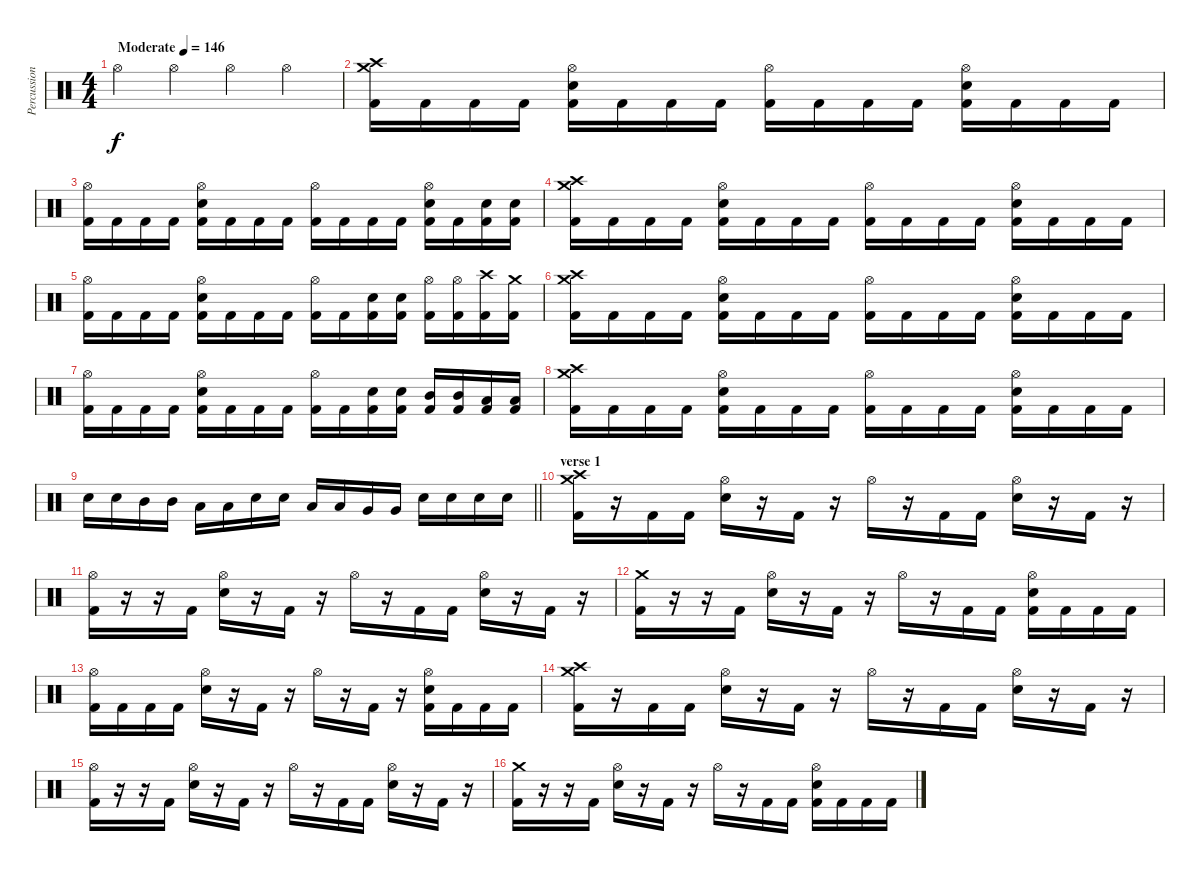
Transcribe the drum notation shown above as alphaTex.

\track ("Percussion" "Percussion") {instrument percussion}
\staff {score}
\articulation defaults
\ts (4 4)
\tempo (146 "Moderate")
\clef neutral
\ks c "Hi-Hat (open)".4{dy f} "Hi-Hat (open)".4 "Hi-Hat (open)".4 "Hi-Hat (open)".4
|
("Crash high (hit)" "Crash medium (hit)" "Kick (hit) 2").16 "Kick (hit) 2".16 "Kick (hit) 2".16 "Kick (hit) 2".16 ("Hi-Hat (open)" "Snare (hit) 2" "Kick (hit) 2").16 "Kick (hit) 2".16 "Kick (hit) 2".16 "Kick (hit) 2".16 ("Hi-Hat (open)" "Kick (hit) 2").16 "Kick (hit) 2".16 "Kick (hit) 2".16 "Kick (hit) 2".16 ("Hi-Hat (open)" "Snare (hit) 2" "Kick (hit) 2").16 "Kick (hit) 2".16 "Kick (hit) 2".16 "Kick (hit) 2".16 |
("Hi-Hat (open)" "Kick (hit) 2").16 "Kick (hit) 2".16 "Kick (hit) 2".16 "Kick (hit) 2".16 ("Hi-Hat (open)" "Snare (hit) 2" "Kick (hit) 2").16 "Kick (hit) 2".16 "Kick (hit) 2".16 "Kick (hit) 2".16 ("Hi-Hat (open)" "Kick (hit) 2").16 "Kick (hit) 2".16 "Kick (hit) 2".16 "Kick (hit) 2".16 ("Hi-Hat (open)" "Snare (hit) 2" "Kick (hit) 2").16 "Kick (hit) 2".16 ("Snare (hit) 2" "Kick (hit) 2").16 ("Snare (hit) 2" "Kick (hit) 2").16 |
("Crash high (hit)" "Crash medium (hit)" "Kick (hit) 2").16 "Kick (hit) 2".16 "Kick (hit) 2".16 "Kick (hit) 2".16 ("Hi-Hat (open)" "Snare (hit) 2" "Kick (hit) 2").16 "Kick (hit) 2".16 "Kick (hit) 2".16 "Kick (hit) 2".16 ("Hi-Hat (open)" "Kick (hit) 2").16 "Kick (hit) 2".16 "Kick (hit) 2".16 "Kick (hit) 2".16 ("Hi-Hat (open)" "Snare (hit) 2" "Kick (hit) 2").16 "Kick (hit) 2".16 "Kick (hit) 2".16 "Kick (hit) 2".16 |
("Hi-Hat (open)" "Kick (hit) 2").16 "Kick (hit) 2".16 "Kick (hit) 2".16 "Kick (hit) 2".16 ("Hi-Hat (open)" "Snare (hit) 2" "Kick (hit) 2").16 "Kick (hit) 2".16 "Kick (hit) 2".16 "Kick (hit) 2".16 ("Hi-Hat (open)" "Kick (hit) 2").16 "Kick (hit) 2".16 ("Snare (hit) 2" "Kick (hit) 2").16 ("Snare (hit) 2" "Kick (hit) 2").16 ("Hi-Hat (open)" "Kick (hit) 2").16 ("Hi-Hat (open)" "Kick (hit) 2").16 ("Crash high (hit)" "Kick (hit) 2").16 ("Crash medium (hit)" "Kick (hit) 2").16 |
("Crash high (hit)" "Crash medium (hit)" "Kick (hit) 2").16 "Kick (hit) 2".16 "Kick (hit) 2".16 "Kick (hit) 2".16 ("Hi-Hat (open)" "Snare (hit) 2" "Kick (hit) 2").16 "Kick (hit) 2".16 "Kick (hit) 2".16 "Kick (hit) 2".16 ("Hi-Hat (open)" "Kick (hit) 2").16 "Kick (hit) 2".16 "Kick (hit) 2".16 "Kick (hit) 2".16 ("Hi-Hat (open)" "Snare (hit) 2" "Kick (hit) 2").16 "Kick (hit) 2".16 "Kick (hit) 2".16 "Kick (hit) 2".16 |
("Hi-Hat (open)" "Kick (hit) 2").16 "Kick (hit) 2".16 "Kick (hit) 2".16 "Kick (hit) 2".16 ("Hi-Hat (open)" "Snare (hit) 2" "Kick (hit) 2").16 "Kick (hit) 2".16 "Kick (hit) 2".16 "Kick (hit) 2".16 ("Hi-Hat (open)" "Kick (hit) 2").16 "Kick (hit) 2".16 ("Snare (hit) 2" "Kick (hit) 2").16 ("Snare (hit) 2" "Kick (hit) 2").16 ("Mid Tom (hit)" "Kick (hit) 2").16 ("Mid Tom (hit)" "Kick (hit) 2").16 ("Low Tom (hit)" "Kick (hit) 2").16 ("Low Tom (hit)" "Kick (hit) 2").16 |
("Crash high (hit)" "Crash medium (hit)" "Kick (hit) 2").16 "Kick (hit) 2".16 "Kick (hit) 2".16 "Kick (hit) 2".16 ("Hi-Hat (open)" "Snare (hit) 2" "Kick (hit) 2").16 "Kick (hit) 2".16 "Kick (hit) 2".16 "Kick (hit) 2".16 ("Hi-Hat (open)" "Kick (hit) 2").16 "Kick (hit) 2".16 "Kick (hit) 2".16 "Kick (hit) 2".16 ("Hi-Hat (open)" "Snare (hit) 2" "Kick (hit) 2").16 "Kick (hit) 2".16 "Kick (hit) 2".16 "Kick (hit) 2".16 |
\barLineRight lightlight "Snare (hit) 2".16 "Snare (hit) 2".16 "Mid Tom (hit)".16 "Mid Tom (hit)".16 "Low Tom (hit)".16 "Low Tom (hit)".16 "Snare (hit) 2".16 "Snare (hit) 2".16 "Low Tom (hit)".16 "Low Tom (hit)".16 "Very Low Tom (hit)".16 "Very Low Tom (hit)".16 "Snare (hit) 2".16 "Snare (hit) 2".16 "Snare (hit) 2".16 "Snare (hit) 2".16
|
\section ("" "verse 1")
("Crash high (hit)" "Crash medium (hit)" "Kick (hit) 2").16 r.16 "Kick (hit) 2".16 "Kick (hit) 2".16 ("Hi-Hat (open)" "Snare (hit) 2").16 r.16 "Kick (hit) 2".16 r.16 "Hi-Hat (open)".16 r.16 "Kick (hit) 2".16 "Kick (hit) 2".16 ("Hi-Hat (open)" "Snare (hit) 2").16 r.16 "Kick (hit) 2".16 r.16 |
("Hi-Hat (open)" "Kick (hit) 2").16 r.16 r.16 "Kick (hit) 2".16 ("Hi-Hat (open)" "Snare (hit) 2").16 r.16 "Kick (hit) 2".16 r.16 "Hi-Hat (open)".16 r.16 "Kick (hit) 2".16 "Kick (hit) 2".16 ("Hi-Hat (open)" "Snare (hit) 2").16 r.16 "Kick (hit) 2".16 r.16 |
("Crash medium (hit)" "Kick (hit) 2").16 r.16 r.16 "Kick (hit) 2".16 ("Hi-Hat (open)" "Snare (hit) 2").16 r.16 "Kick (hit) 2".16 r.16 "Hi-Hat (open)".16 r.16 "Kick (hit) 2".16 "Kick (hit) 2".16 ("Hi-Hat (open)" "Snare (hit) 2" "Kick (hit) 2").16 "Kick (hit) 2".16 "Kick (hit) 2".16 "Kick (hit) 2".16 |
("Hi-Hat (open)" "Kick (hit) 2").16 "Kick (hit) 2".16 "Kick (hit) 2".16 "Kick (hit) 2".16 ("Hi-Hat (open)" "Snare (hit) 2").16 r.16 "Kick (hit) 2".16 r.16 "Hi-Hat (open)".16 r.16 "Kick (hit) 2".16 r.16 ("Hi-Hat (open)" "Snare (hit) 2" "Kick (hit) 2").16 "Kick (hit) 2".16 "Kick (hit) 2".16 "Kick (hit) 2".16 |
("Crash high (hit)" "Crash medium (hit)" "Kick (hit) 2").16 r.16 "Kick (hit) 2".16 "Kick (hit) 2".16 ("Hi-Hat (open)" "Snare (hit) 2").16 r.16 "Kick (hit) 2".16 r.16 "Hi-Hat (open)".16 r.16 "Kick (hit) 2".16 "Kick (hit) 2".16 ("Hi-Hat (open)" "Snare (hit) 2").16 r.16 "Kick (hit) 2".16 r.16 |
("Hi-Hat (open)" "Kick (hit) 2").16 r.16 r.16 "Kick (hit) 2".16 ("Hi-Hat (open)" "Snare (hit) 2").16 r.16 "Kick (hit) 2".16 r.16 "Hi-Hat (open)".16 r.16 "Kick (hit) 2".16 "Kick (hit) 2".16 ("Hi-Hat (open)" "Snare (hit) 2").16 r.16 "Kick (hit) 2".16 r.16 |
("Crash medium (hit)" "Kick (hit) 2").16 r.16 r.16 "Kick (hit) 2".16 ("Hi-Hat (open)" "Snare (hit) 2").16 r.16 "Kick (hit) 2".16 r.16 "Hi-Hat (open)".16 r.16 "Kick (hit) 2".16 "Kick (hit) 2".16 ("Hi-Hat (open)" "Snare (hit) 2" "Kick (hit) 2").16 "Kick (hit) 2".16 "Kick (hit) 2".16 "Kick (hit) 2".16
